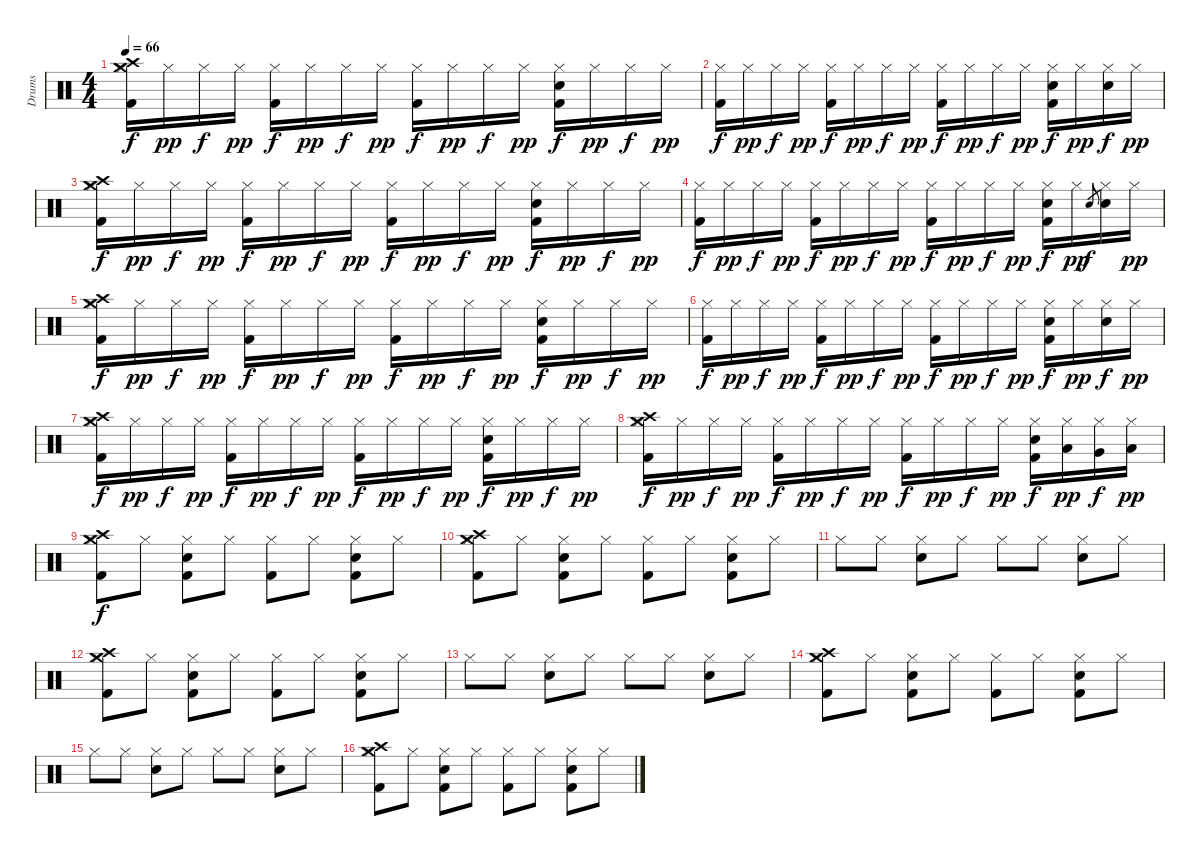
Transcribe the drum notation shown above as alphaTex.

\track ("Drums" "Drums") {instrument percussion}
\staff {score}
\articulation defaults
\ts (4 4)
\tempo 66
\clef neutral
\ks c
("Kick (hit) 2" "Hi-Hat (closed)" "Crash medium (hit)" "Crash high (hit)").16{dy f} "Hi-Hat (closed)".16{dy pp} "Hi-Hat (closed)".16{dy f} "Hi-Hat (closed)".16{dy pp} ("Kick (hit) 2" "Hi-Hat (closed)").16{dy f} "Hi-Hat (closed)".16{dy pp} "Hi-Hat (closed)".16{dy f} "Hi-Hat (closed)".16{dy pp} ("Kick (hit) 2" "Hi-Hat (closed)").16{dy f} "Hi-Hat (closed)".16{dy pp} "Hi-Hat (closed)".16{dy f} "Hi-Hat (closed)".16{dy pp} ("Kick (hit) 2" "Hi-Hat (closed)" "Snare (hit) 2").16{dy f} "Hi-Hat (closed)".16{dy pp} "Hi-Hat (closed)".16{dy f} "Hi-Hat (closed)".16{dy pp} |
("Kick (hit) 2" "Hi-Hat (closed)").16{dy f} "Hi-Hat (closed)".16{dy pp} "Hi-Hat (closed)".16{dy f} "Hi-Hat (closed)".16{dy pp} ("Kick (hit) 2" "Hi-Hat (closed)").16{dy f} "Hi-Hat (closed)".16{dy pp} "Hi-Hat (closed)".16{dy f} "Hi-Hat (closed)".16{dy pp} ("Kick (hit) 2" "Hi-Hat (closed)").16{dy f} "Hi-Hat (closed)".16{dy pp} "Hi-Hat (closed)".16{dy f} "Hi-Hat (closed)".16{dy pp} ("Kick (hit) 2" "Hi-Hat (closed)" "Snare (hit) 2").16{dy f} "Hi-Hat (closed)".16{dy pp} ("Hi-Hat (closed)" "Snare (hit) 2").16{dy f} "Hi-Hat (closed)".16{dy pp} |
("Kick (hit) 2" "Hi-Hat (closed)" "Crash medium (hit)" "Crash high (hit)").16{dy f} "Hi-Hat (closed)".16{dy pp} "Hi-Hat (closed)".16{dy f} "Hi-Hat (closed)".16{dy pp} ("Kick (hit) 2" "Hi-Hat (closed)").16{dy f} "Hi-Hat (closed)".16{dy pp} "Hi-Hat (closed)".16{dy f} "Hi-Hat (closed)".16{dy pp} ("Kick (hit) 2" "Hi-Hat (closed)").16{dy f} "Hi-Hat (closed)".16{dy pp} "Hi-Hat (closed)".16{dy f} "Hi-Hat (closed)".16{dy pp} ("Kick (hit) 2" "Hi-Hat (closed)" "Snare (hit) 2").16{dy f} "Hi-Hat (closed)".16{dy pp} "Hi-Hat (closed)".16{dy f} "Hi-Hat (closed)".16{dy pp} |
("Kick (hit) 2" "Hi-Hat (closed)").16{dy f} "Hi-Hat (closed)".16{dy pp} "Hi-Hat (closed)".16{dy f} "Hi-Hat (closed)".16{dy pp} ("Kick (hit) 2" "Hi-Hat (closed)").16{dy f} "Hi-Hat (closed)".16{dy pp} "Hi-Hat (closed)".16{dy f} "Hi-Hat (closed)".16{dy pp} ("Kick (hit) 2" "Hi-Hat (closed)").16{dy f} "Hi-Hat (closed)".16{dy pp} "Hi-Hat (closed)".16{dy f} "Hi-Hat (closed)".16{dy pp} ("Kick (hit) 2" "Hi-Hat (closed)" "Snare (hit) 2").16{dy f} "Hi-Hat (closed)".16{dy pp} "Snare (hit) 2".8{gr dy f} ("Hi-Hat (closed)" "Snare (hit) 2").16 "Hi-Hat (closed)".16{dy pp} |
("Kick (hit) 2" "Hi-Hat (closed)" "Crash medium (hit)" "Crash high (hit)").16{dy f} "Hi-Hat (closed)".16{dy pp} "Hi-Hat (closed)".16{dy f} "Hi-Hat (closed)".16{dy pp} ("Kick (hit) 2" "Hi-Hat (closed)").16{dy f} "Hi-Hat (closed)".16{dy pp} "Hi-Hat (closed)".16{dy f} "Hi-Hat (closed)".16{dy pp} ("Kick (hit) 2" "Hi-Hat (closed)").16{dy f} "Hi-Hat (closed)".16{dy pp} "Hi-Hat (closed)".16{dy f} "Hi-Hat (closed)".16{dy pp} ("Kick (hit) 2" "Hi-Hat (closed)" "Snare (hit) 2").16{dy f} "Hi-Hat (closed)".16{dy pp} "Hi-Hat (closed)".16{dy f} "Hi-Hat (closed)".16{dy pp} |
("Kick (hit) 2" "Hi-Hat (closed)").16{dy f} "Hi-Hat (closed)".16{dy pp} "Hi-Hat (closed)".16{dy f} "Hi-Hat (closed)".16{dy pp} ("Kick (hit) 2" "Hi-Hat (closed)").16{dy f} "Hi-Hat (closed)".16{dy pp} "Hi-Hat (closed)".16{dy f} "Hi-Hat (closed)".16{dy pp} ("Kick (hit) 2" "Hi-Hat (closed)").16{dy f} "Hi-Hat (closed)".16{dy pp} "Hi-Hat (closed)".16{dy f} "Hi-Hat (closed)".16{dy pp} ("Kick (hit) 2" "Hi-Hat (closed)" "Snare (hit) 2").16{dy f} "Hi-Hat (closed)".16{dy pp} ("Hi-Hat (closed)" "Snare (hit) 2").16{dy f} "Hi-Hat (closed)".16{dy pp} |
("Kick (hit) 2" "Hi-Hat (closed)" "Crash medium (hit)" "Crash high (hit)").16{dy f} "Hi-Hat (closed)".16{dy pp} "Hi-Hat (closed)".16{dy f} "Hi-Hat (closed)".16{dy pp} ("Kick (hit) 2" "Hi-Hat (closed)").16{dy f} "Hi-Hat (closed)".16{dy pp} "Hi-Hat (closed)".16{dy f} "Hi-Hat (closed)".16{dy pp} ("Kick (hit) 2" "Hi-Hat (closed)").16{dy f} "Hi-Hat (closed)".16{dy pp} "Hi-Hat (closed)".16{dy f} "Hi-Hat (closed)".16{dy pp} ("Kick (hit) 2" "Hi-Hat (closed)" "Snare (hit) 2").16{dy f} "Hi-Hat (closed)".16{dy pp} "Hi-Hat (closed)".16{dy f} "Hi-Hat (closed)".16{dy pp} |
("Kick (hit) 2" "Hi-Hat (closed)" "Crash medium (hit)" "Crash high (hit)").16{dy f} "Hi-Hat (closed)".16{dy pp} "Hi-Hat (closed)".16{dy f} "Hi-Hat (closed)".16{dy pp} ("Kick (hit) 2" "Hi-Hat (closed)").16{dy f} "Hi-Hat (closed)".16{dy pp} "Hi-Hat (closed)".16{dy f} "Hi-Hat (closed)".16{dy pp} ("Kick (hit) 2" "Hi-Hat (closed)").16{dy f} "Hi-Hat (closed)".16{dy pp} "Hi-Hat (closed)".16{dy f} "Hi-Hat (closed)".16{dy pp} ("Kick (hit) 2" "Hi-Hat (closed)" "Snare (hit) 2").16{dy f} ("Hi-Hat (closed)" "Low Tom (hit)").16{dy pp} ("Hi-Hat (closed)" "Very Low Tom (hit)").16{dy f} ("Hi-Hat (closed)" "Low Floor Tom (hit)").16{dy pp} |
("Kick (hit) 2" "Hi-Hat (closed)" "Crash medium (hit)" "Crash high (hit)").8{dy f} "Hi-Hat (closed)".8 ("Kick (hit) 2" "Hi-Hat (closed)" "Snare (hit) 2").8 "Hi-Hat (closed)".8 ("Kick (hit) 2" "Hi-Hat (closed)").8 "Hi-Hat (closed)".8 ("Kick (hit) 2" "Hi-Hat (closed)" "Snare (hit) 2").8 "Hi-Hat (closed)".8 |
("Kick (hit) 2" "Hi-Hat (closed)" "Crash medium (hit)" "Crash high (hit)").8 "Hi-Hat (closed)".8 ("Kick (hit) 2" "Hi-Hat (closed)" "Snare (hit) 2").8 "Hi-Hat (closed)".8 ("Kick (hit) 2" "Hi-Hat (closed)").8 "Hi-Hat (closed)".8 ("Kick (hit) 2" "Hi-Hat (closed)" "Snare (hit) 2").8 "Hi-Hat (closed)".8 |
"Hi-Hat (closed)".8 "Hi-Hat (closed)".8 ("Hi-Hat (closed)" "Snare (hit) 2").8 "Hi-Hat (closed)".8 "Hi-Hat (closed)".8 "Hi-Hat (closed)".8 ("Hi-Hat (closed)" "Snare (hit) 2").8 "Hi-Hat (closed)".8 |
("Kick (hit) 2" "Hi-Hat (closed)" "Crash medium (hit)" "Crash high (hit)").8 "Hi-Hat (closed)".8 ("Kick (hit) 2" "Hi-Hat (closed)" "Snare (hit) 2").8 "Hi-Hat (closed)".8 ("Kick (hit) 2" "Hi-Hat (closed)").8 "Hi-Hat (closed)".8 ("Kick (hit) 2" "Hi-Hat (closed)" "Snare (hit) 2").8 "Hi-Hat (closed)".8 |
"Hi-Hat (closed)".8 "Hi-Hat (closed)".8 ("Hi-Hat (closed)" "Snare (hit) 2").8 "Hi-Hat (closed)".8 "Hi-Hat (closed)".8 "Hi-Hat (closed)".8 ("Hi-Hat (closed)" "Snare (hit) 2").8 "Hi-Hat (closed)".8 |
("Kick (hit) 2" "Hi-Hat (closed)" "Crash medium (hit)" "Crash high (hit)").8 "Hi-Hat (closed)".8 ("Kick (hit) 2" "Hi-Hat (closed)" "Snare (hit) 2").8 "Hi-Hat (closed)".8 ("Kick (hit) 2" "Hi-Hat (closed)").8 "Hi-Hat (closed)".8 ("Kick (hit) 2" "Hi-Hat (closed)" "Snare (hit) 2").8 "Hi-Hat (closed)".8 |
"Hi-Hat (closed)".8 "Hi-Hat (closed)".8 ("Hi-Hat (closed)" "Snare (hit) 2").8 "Hi-Hat (closed)".8 "Hi-Hat (closed)".8 "Hi-Hat (closed)".8 ("Hi-Hat (closed)" "Snare (hit) 2").8 "Hi-Hat (closed)".8 |
("Kick (hit) 2" "Hi-Hat (closed)" "Crash medium (hit)" "Crash high (hit)").8 "Hi-Hat (closed)".8 ("Kick (hit) 2" "Hi-Hat (closed)" "Snare (hit) 2").8 "Hi-Hat (closed)".8 ("Kick (hit) 2" "Hi-Hat (closed)").8 "Hi-Hat (closed)".8 ("Kick (hit) 2" "Hi-Hat (closed)" "Snare (hit) 2").8 "Hi-Hat (closed)".8
